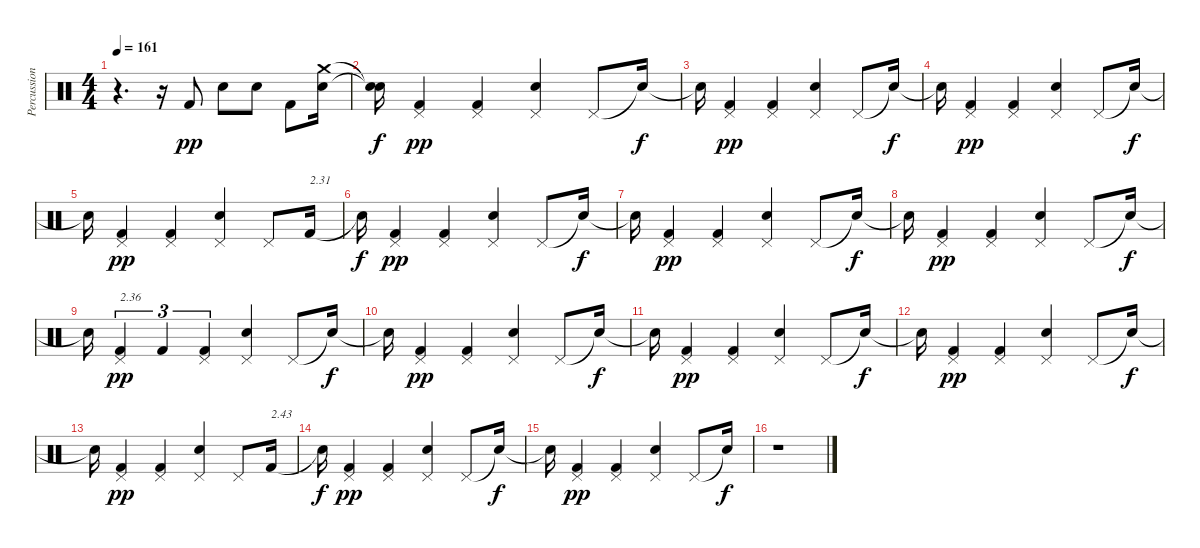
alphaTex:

\track ("Percussions" "Percussion") {instrument percussion}
\staff {score}
\articulation defaults
\ts (4 4)
\tempo 161
\clef neutral
\ks c
r.4{d dy pp} r.16 "Kick (hit) 2".8 "Electric Snare (hit)".8 "Electric Snare (hit)".8 "Kick (hit) 2".8 ("Electric Snare (hit)" "Crash medium (hit)").16 |
("Snare (hit)"{t} "Snare (hit)"{t}).16{dy f} ("Kick (hit) 2" "Pedal Hi-Hat (hit)").4{dy pp} ("Kick (hit) 2" "Pedal Hi-Hat (hit)").4 ("Electric Snare (hit)" "Pedal Hi-Hat (hit)").4 "Pedal Hi-Hat (hit)".8 "Snare (hit)"{t}.16{dy f} |
"Snare (hit)"{t}.16 ("Kick (hit) 2" "Pedal Hi-Hat (hit)").4{dy pp} ("Kick (hit) 2" "Pedal Hi-Hat (hit)").4 ("Electric Snare (hit)" "Pedal Hi-Hat (hit)").4 "Pedal Hi-Hat (hit)".8 "Snare (hit)"{t}.16{dy f} |
"Snare (hit)"{t}.16 ("Kick (hit) 2" "Pedal Hi-Hat (hit)").4{dy pp} ("Kick (hit) 2" "Pedal Hi-Hat (hit)").4 ("Electric Snare (hit)" "Pedal Hi-Hat (hit)").4 "Pedal Hi-Hat (hit)".8 "Snare (hit)"{t}.16{dy f} |
"Snare (hit)"{t}.16 ("Kick (hit) 2" "Pedal Hi-Hat (hit)").4{dy pp} ("Kick (hit) 2" "Pedal Hi-Hat (hit)").4 ("Electric Snare (hit)" "Pedal Hi-Hat (hit)").4 "Pedal Hi-Hat (hit)".8 "Kick (hit) 2".16{txt "2.31"} |
"Snare (hit)"{t}.16{dy f} ("Kick (hit) 2" "Pedal Hi-Hat (hit)").4{dy pp} ("Kick (hit) 2" "Pedal Hi-Hat (hit)").4 ("Electric Snare (hit)" "Pedal Hi-Hat (hit)").4 "Pedal Hi-Hat (hit)".8 "Snare (hit)"{t}.16{dy f} |
"Snare (hit)"{t}.16 ("Kick (hit) 2" "Pedal Hi-Hat (hit)").4{dy pp} ("Kick (hit) 2" "Pedal Hi-Hat (hit)").4 ("Electric Snare (hit)" "Pedal Hi-Hat (hit)").4 "Pedal Hi-Hat (hit)".8 "Snare (hit)"{t}.16{dy f} |
"Snare (hit)"{t}.16 ("Kick (hit) 2" "Pedal Hi-Hat (hit)").4{dy pp} ("Kick (hit) 2" "Pedal Hi-Hat (hit)").4 ("Electric Snare (hit)" "Pedal Hi-Hat (hit)").4 "Pedal Hi-Hat (hit)".8 "Snare (hit)"{t}.16{dy f} |
"Snare (hit)"{t}.16 ("Kick (hit) 2" "Pedal Hi-Hat (hit)").4{tu (3 2) txt "2.36" dy pp} "Kick (hit) 2".4{tu (3 2)} ("Kick (hit) 2" "Pedal Hi-Hat (hit)").4{tu (3 2)} ("Electric Snare (hit)" "Pedal Hi-Hat (hit)").4 "Pedal Hi-Hat (hit)".8 "Snare (hit)"{t}.16{dy f} |
"Snare (hit)"{t}.16 ("Kick (hit) 2" "Pedal Hi-Hat (hit)").4{dy pp} ("Kick (hit) 2" "Pedal Hi-Hat (hit)").4 ("Electric Snare (hit)" "Pedal Hi-Hat (hit)").4 "Pedal Hi-Hat (hit)".8 "Snare (hit)"{t}.16{dy f} |
"Snare (hit)"{t}.16 ("Kick (hit) 2" "Pedal Hi-Hat (hit)").4{dy pp} ("Kick (hit) 2" "Pedal Hi-Hat (hit)").4 ("Electric Snare (hit)" "Pedal Hi-Hat (hit)").4 "Pedal Hi-Hat (hit)".8 "Snare (hit)"{t}.16{dy f} |
"Snare (hit)"{t}.16 ("Kick (hit) 2" "Pedal Hi-Hat (hit)").4{dy pp} ("Kick (hit) 2" "Pedal Hi-Hat (hit)").4 ("Electric Snare (hit)" "Pedal Hi-Hat (hit)").4 "Pedal Hi-Hat (hit)".8 "Snare (hit)"{t}.16{dy f} |
"Snare (hit)"{t}.16 ("Kick (hit) 2" "Pedal Hi-Hat (hit)").4{dy pp} ("Kick (hit) 2" "Pedal Hi-Hat (hit)").4 ("Electric Snare (hit)" "Pedal Hi-Hat (hit)").4 "Pedal Hi-Hat (hit)".8 "Kick (hit) 2".16{txt "2.43"} |
"Snare (hit)"{t}.16{dy f} ("Kick (hit) 2" "Pedal Hi-Hat (hit)").4{dy pp} ("Kick (hit) 2" "Pedal Hi-Hat (hit)").4 ("Electric Snare (hit)" "Pedal Hi-Hat (hit)").4 "Pedal Hi-Hat (hit)".8 "Snare (hit)"{t}.16{dy f} |
"Snare (hit)"{t}.16 ("Kick (hit) 2" "Pedal Hi-Hat (hit)").4{dy pp} ("Kick (hit) 2" "Pedal Hi-Hat (hit)").4 ("Electric Snare (hit)" "Pedal Hi-Hat (hit)").4 "Pedal Hi-Hat (hit)".8 "Snare (hit)"{t}.16{dy f} |
r.1
